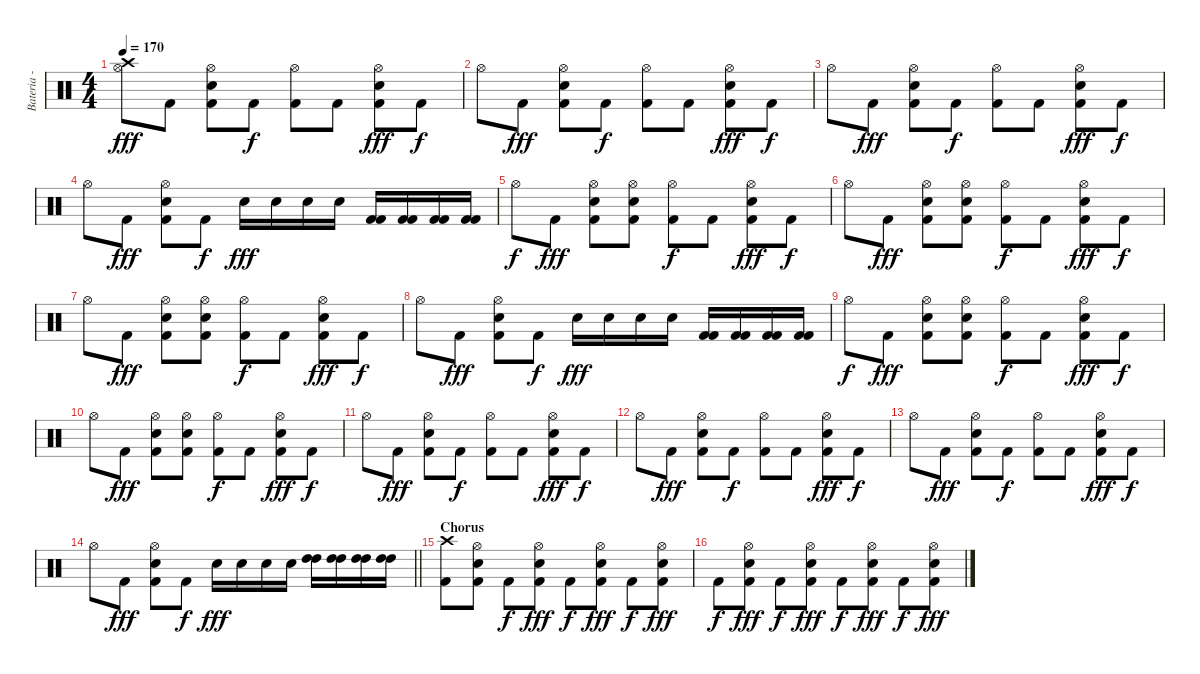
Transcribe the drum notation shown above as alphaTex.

\track ("Bateria - Larzon" "Bateria - ") {instrument percussion}
\staff {score}
\articulation defaults
\ts (4 4)
\tempo 170
\clef neutral
\ks c
("Crash high (hit)" "Hi-Hat (open)").8{dy fff} "Kick (hit) 2".8 ("Kick (hit) 2" "Hi-Hat (open)" "Snare (hit) 2").8 "Kick (hit) 2".8{dy f} ("Kick (hit) 2" "Hi-Hat (open)").8 "Kick (hit) 2".8 ("Kick (hit) 2" "Hi-Hat (open)" "Snare (hit) 2").8{dy fff} "Kick (hit) 2".8{dy f} |
"Hi-Hat (open)".8 "Kick (hit) 2".8{dy fff} ("Kick (hit) 2" "Hi-Hat (open)" "Snare (hit) 2").8 "Kick (hit) 2".8{dy f} ("Kick (hit) 2" "Hi-Hat (open)").8 "Kick (hit) 2".8 ("Kick (hit) 2" "Hi-Hat (open)" "Snare (hit) 2").8{dy fff} "Kick (hit) 2".8{dy f} |
"Hi-Hat (open)".8 "Kick (hit) 2".8{dy fff} ("Kick (hit) 2" "Hi-Hat (open)" "Snare (hit) 2").8 "Kick (hit) 2".8{dy f} ("Kick (hit) 2" "Hi-Hat (open)").8 "Kick (hit) 2".8 ("Kick (hit) 2" "Hi-Hat (open)" "Snare (hit) 2").8{dy fff} "Kick (hit) 2".8{dy f} |
"Hi-Hat (open)".8 "Kick (hit) 2".8{dy fff} ("Kick (hit) 2" "Hi-Hat (open)" "Snare (hit) 2").8 "Kick (hit) 2".8{dy f} "Snare (hit) 2".16{dy fff} "Snare (hit) 2".16 "Snare (hit) 2".16 "Snare (hit) 2".16 ("Kick (hit) 2" "Kick (hit) 2").16 ("Kick (hit) 2" "Kick (hit) 2").16 ("Kick (hit) 2" "Kick (hit) 2").16 ("Kick (hit) 2" "Kick (hit) 2").16 |
"Hi-Hat (open)".8{dy f} "Kick (hit) 2".8{dy fff} ("Kick (hit) 2" "Hi-Hat (open)" "Snare (hit) 2").8 ("Kick (hit) 2" "Hi-Hat (open)" "Snare (hit) 2").8 ("Kick (hit) 2" "Hi-Hat (open)").8{dy f} "Kick (hit) 2".8 ("Kick (hit) 2" "Hi-Hat (open)" "Snare (hit) 2").8{dy fff} "Kick (hit) 2".8{dy f} |
"Hi-Hat (open)".8 "Kick (hit) 2".8{dy fff} ("Kick (hit) 2" "Hi-Hat (open)" "Snare (hit) 2").8 ("Kick (hit) 2" "Hi-Hat (open)" "Snare (hit) 2").8 ("Kick (hit) 2" "Hi-Hat (open)").8{dy f} "Kick (hit) 2".8 ("Kick (hit) 2" "Hi-Hat (open)" "Snare (hit) 2").8{dy fff} "Kick (hit) 2".8{dy f} |
"Hi-Hat (open)".8 "Kick (hit) 2".8{dy fff} ("Kick (hit) 2" "Hi-Hat (open)" "Snare (hit) 2").8 ("Kick (hit) 2" "Hi-Hat (open)" "Snare (hit) 2").8 ("Kick (hit) 2" "Hi-Hat (open)").8{dy f} "Kick (hit) 2".8 ("Kick (hit) 2" "Hi-Hat (open)" "Snare (hit) 2").8{dy fff} "Kick (hit) 2".8{dy f} |
"Hi-Hat (open)".8 "Kick (hit) 2".8{dy fff} ("Kick (hit) 2" "Hi-Hat (open)" "Snare (hit) 2").8 "Kick (hit) 2".8{dy f} "Snare (hit) 2".16{dy fff} "Snare (hit) 2".16 "Snare (hit) 2".16 "Snare (hit) 2".16 ("Kick (hit) 2" "Kick (hit) 2").16 ("Kick (hit) 2" "Kick (hit) 2").16 ("Kick (hit) 2" "Kick (hit) 2").16 ("Kick (hit) 2" "Kick (hit) 2").16 |
"Hi-Hat (open)".8{dy f} "Kick (hit) 2".8{dy fff} ("Kick (hit) 2" "Hi-Hat (open)" "Snare (hit) 2").8 ("Kick (hit) 2" "Hi-Hat (open)" "Snare (hit) 2").8 ("Kick (hit) 2" "Hi-Hat (open)").8{dy f} "Kick (hit) 2".8 ("Kick (hit) 2" "Hi-Hat (open)" "Snare (hit) 2").8{dy fff} "Kick (hit) 2".8{dy f} |
"Hi-Hat (open)".8 "Kick (hit) 2".8{dy fff} ("Kick (hit) 2" "Hi-Hat (open)" "Snare (hit) 2").8 ("Kick (hit) 2" "Hi-Hat (open)" "Snare (hit) 2").8 ("Kick (hit) 2" "Hi-Hat (open)").8{dy f} "Kick (hit) 2".8 ("Kick (hit) 2" "Hi-Hat (open)" "Snare (hit) 2").8{dy fff} "Kick (hit) 2".8{dy f} |
"Hi-Hat (open)".8 "Kick (hit) 2".8{dy fff} ("Kick (hit) 2" "Hi-Hat (open)" "Snare (hit) 2").8 "Kick (hit) 2".8{dy f} ("Kick (hit) 2" "Hi-Hat (open)").8 "Kick (hit) 2".8 ("Kick (hit) 2" "Hi-Hat (open)" "Snare (hit) 2").8{dy fff} "Kick (hit) 2".8{dy f} |
"Hi-Hat (open)".8 "Kick (hit) 2".8{dy fff} ("Kick (hit) 2" "Hi-Hat (open)" "Snare (hit) 2").8 "Kick (hit) 2".8{dy f} ("Kick (hit) 2" "Hi-Hat (open)").8 "Kick (hit) 2".8 ("Kick (hit) 2" "Hi-Hat (open)" "Snare (hit) 2").8{dy fff} "Kick (hit) 2".8{dy f} |
"Hi-Hat (open)".8 "Kick (hit) 2".8{dy fff} ("Kick (hit) 2" "Hi-Hat (open)" "Snare (hit) 2").8 "Kick (hit) 2".8{dy f} ("Kick (hit) 2" "Hi-Hat (open)").8 "Kick (hit) 2".8 ("Kick (hit) 2" "Hi-Hat (open)" "Snare (hit) 2").8{dy fff} "Kick (hit) 2".8{dy f} |
\barLineRight lightlight "Hi-Hat (open)".8 "Kick (hit) 2".8{dy fff}
("Kick (hit) 2" "Hi-Hat (open)" "Snare (hit) 2").8 "Kick (hit) 2".8{dy f} "Snare (hit) 2".16{dy fff} "Snare (hit) 2".16 "Snare (hit) 2".16 "Snare (hit) 2".16 ("High Tom (hit)" "High Tom (hit)").16 ("High Tom (hit)" "High Tom (hit)").16 ("High Tom (hit)" "High Tom (hit)").16 ("High Tom (hit)" "High Tom (hit)").16 |
\section ("" "Chorus")
("Crash high (hit)" "Kick (hit) 2").8 ("Kick (hit) 2" "Hi-Hat (open)" "Snare (hit) 2").8 "Kick (hit) 2".8{dy f} ("Kick (hit) 2" "Hi-Hat (open)" "Snare (hit) 2").8{dy fff} "Kick (hit) 2".8{dy f} ("Kick (hit) 2" "Hi-Hat (open)" "Snare (hit) 2").8{dy fff} "Kick (hit) 2".8{dy f} ("Kick (hit) 2" "Hi-Hat (open)" "Snare (hit) 2").8{dy fff} |
"Kick (hit) 2".8{dy f} ("Kick (hit) 2" "Hi-Hat (open)" "Snare (hit) 2").8{dy fff} "Kick (hit) 2".8{dy f} ("Kick (hit) 2" "Hi-Hat (open)" "Snare (hit) 2").8{dy fff} "Kick (hit) 2".8{dy f} ("Kick (hit) 2" "Hi-Hat (open)" "Snare (hit) 2").8{dy fff} "Kick (hit) 2".8{dy f} ("Kick (hit) 2" "Hi-Hat (open)" "Snare (hit) 2").8{dy fff}
